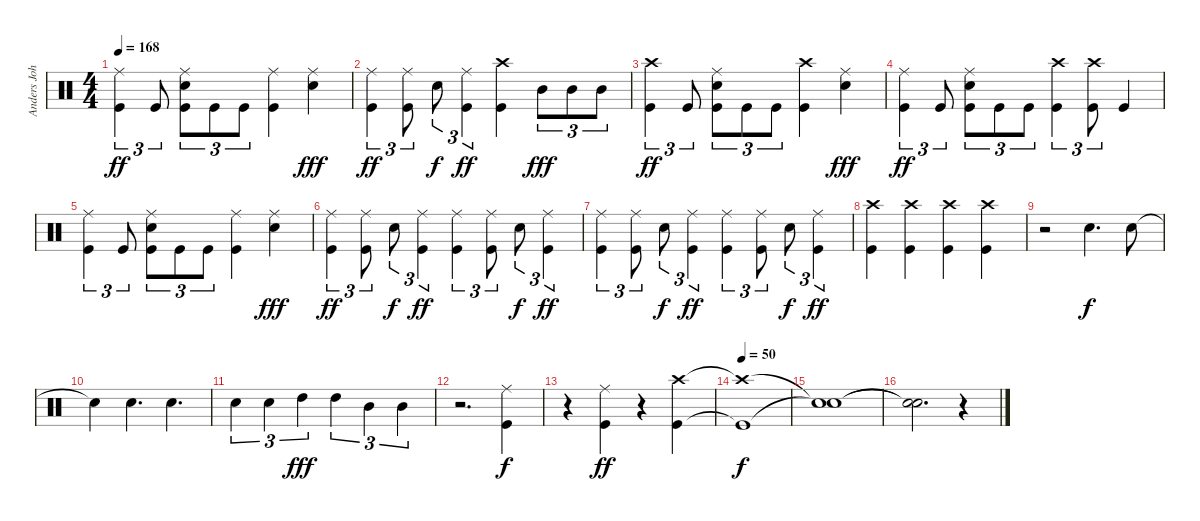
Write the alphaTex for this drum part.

\track ("Anders Johansson (Drums)" "Anders Joh") {instrument percussion}
\staff {score}
\articulation defaults
\ts (4 4)
\tempo 168
\clef neutral
\ks c
("Ride (middle)" "Kick (hit)").4{tu (3 2) dy ff} "Kick (hit)".8{tu (3 2)} ("Ride (middle)" "Electric Snare (hit)" "Kick (hit)").8{tu (3 2)} "Kick (hit)".8{tu (3 2)} "Kick (hit)".8{tu (3 2)} ("Ride (middle)" "Kick (hit)").4 ("Ride (middle)" "Electric Snare (hit)").4{dy fff} |
("Ride (middle)" "Kick (hit)").4{tu (3 2) dy ff} ("Ride (middle)" "Kick (hit)").8{tu (3 2)} "Electric Snare (hit)".8{tu (3 2) dy f} ("Ride (middle)" "Kick (hit)").4{tu (3 2) dy ff} ("Crash high (hit)" "Kick (hit)").4 "Mid Tom (hit)".8{tu (3 2) dy fff} "Mid Tom (hit)".8{tu (3 2)} "Mid Tom (hit)".8{tu (3 2)} |
("Crash high (hit)" "Kick (hit)").4{tu (3 2) dy ff} "Kick (hit)".8{tu (3 2)} ("Ride (middle)" "Electric Snare (hit)" "Kick (hit)").8{tu (3 2)} "Kick (hit)".8{tu (3 2)} "Kick (hit)".8{tu (3 2)} ("Crash high (hit)" "Kick (hit)").4 ("Ride (middle)" "Electric Snare (hit)").4{dy fff} |
("Ride (middle)" "Kick (hit)").4{tu (3 2) dy ff} "Kick (hit)".8{tu (3 2)} ("Ride (middle)" "Electric Snare (hit)" "Kick (hit)").8{tu (3 2)} "Kick (hit)".8{tu (3 2)} "Kick (hit)".8{tu (3 2)} ("Crash high (hit)" "Kick (hit)").4{tu (3 2)} ("Crash high (hit)" "Kick (hit)").8{tu (3 2)} "Kick (hit)".4 |
("Ride (middle)" "Kick (hit)").4{tu (3 2)} "Kick (hit)".8{tu (3 2)} ("Ride (middle)" "Electric Snare (hit)" "Kick (hit)").8{tu (3 2)} "Kick (hit)".8{tu (3 2)} "Kick (hit)".8{tu (3 2)} ("Ride (middle)" "Kick (hit)").4 ("Ride (middle)" "Electric Snare (hit)").4{dy fff} |
("Ride (middle)" "Kick (hit)").4{tu (3 2) dy ff} ("Ride (middle)" "Kick (hit)").8{tu (3 2)} "Electric Snare (hit)".8{tu (3 2) dy f} ("Ride (middle)" "Kick (hit)").4{tu (3 2) dy ff} ("Ride (middle)" "Kick (hit)").4{tu (3 2)} ("Ride (middle)" "Kick (hit)").8{tu (3 2)} "Electric Snare (hit)".8{tu (3 2) dy f} ("Ride (middle)" "Kick (hit)").4{tu (3 2) dy ff} |
("Ride (middle)" "Kick (hit)").4{tu (3 2)} ("Ride (middle)" "Kick (hit)").8{tu (3 2)} "Electric Snare (hit)".8{tu (3 2) dy f} ("Ride (middle)" "Kick (hit)").4{tu (3 2) dy ff} ("Ride (middle)" "Kick (hit)").4{tu (3 2)} ("Ride (middle)" "Kick (hit)").8{tu (3 2)} "Electric Snare (hit)".8{tu (3 2) dy f} ("Ride (middle)" "Kick (hit)").4{tu (3 2) dy ff} |
("Crash high (hit)" "Kick (hit)").4 ("Crash high (hit)" "Kick (hit)").4 ("Crash high (hit)" "Kick (hit)").4 ("Crash high (hit)" "Kick (hit)").4 |
r.2 "Electric Snare (hit)".4{d dy f} "Electric Snare (hit)".8 |
"Electric Snare (hit)"{t}.4 "Electric Snare (hit)".4{d} "Electric Snare (hit)".4{d} |
"Electric Snare (hit)".4{tu (3 2)} "Electric Snare (hit)".4{tu (3 2)} "High Tom (hit)".4{tu (3 2) dy fff} "High Tom (hit)".4{tu (3 2)} "Mid Tom (hit)".4{tu (3 2)} "Mid Tom (hit)".4{tu (3 2)} |
r.2{d} ("Ride (middle)" "Kick (hit)").4{dy f} |
r.4 ("Ride (middle)" "Kick (hit)").4{dy ff} r.4 ("Crash high (hit)" "Kick (hit)").4 |
\tempo 50
("Crash high (hit)"{t} "Kick (hit)"{t}).1{dy f} |
("Snare (hit)"{t} "Snare (hit)"{t}).1 |
("Snare (hit)"{t} "Snare (hit)"{t}).2{d} r.4
